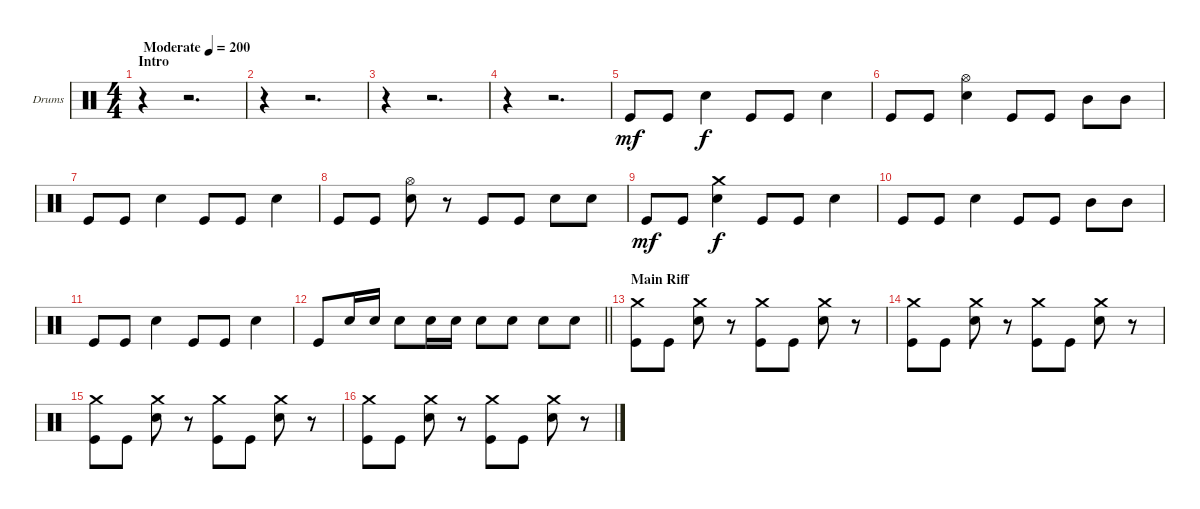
\bracketExtendMode groupsimilarinstruments
\firstSystemTrackNameOrientation horizontal
\otherSystemsTrackNameOrientation horizontal
\track ("Drumkit" "Drums") {instrument percussion}
\staff {score}
\articulation defaults
\ts (4 4)
\beaming (8 2 2 2 2)
\section ("" "Intro")
\tempo (200 "Moderate")
\clef neutral
\ks c
r.4{dy mf} r.2{d} |
r.4 r.2{d} |
r.4 r.2{d} |
r.4 r.2{d} |
"Kick (hit)".8 "Kick (hit)".8 "Snare (hit) 2".4{dy f} "Kick (hit)".8 "Kick (hit)".8 "Snare (hit) 2".4 |
"Kick (hit)".8 "Kick (hit)".8 ("Hi-Hat (open)" "Snare (hit) 2").4 "Kick (hit)".8 "Kick (hit)".8 "Mid Tom (hit)".8 "Mid Tom (hit)".8 |
"Kick (hit)".8 "Kick (hit)".8 "Snare (hit) 2".4 "Kick (hit)".8 "Kick (hit)".8 "Snare (hit) 2".4 |
"Kick (hit)".8 "Kick (hit)".8 ("Hi-Hat (open)" "Snare (hit) 2").8 r.8 "Kick (hit)".8 "Kick (hit)".8 "Snare (hit) 2".8 "Snare (hit) 2".8 |
"Kick (hit)".8{dy mf} "Kick (hit)".8 ("Snare (hit) 2" "Crash medium (hit)").4{dy f} "Kick (hit)".8 "Kick (hit)".8 "Snare (hit) 2".4 |
"Kick (hit)".8 "Kick (hit)".8 "Snare (hit) 2".4 "Kick (hit)".8 "Kick (hit)".8 "Mid Tom (hit)".8 "Mid Tom (hit)".8 |
"Kick (hit)".8 "Kick (hit)".8 "Snare (hit) 2".4 "Kick (hit)".8 "Kick (hit)".8 "Snare (hit) 2".4 |
\barLineRight lightlight "Kick (hit)".8 "Snare (hit) 2".16 "Snare (hit) 2".16 "Snare (hit) 2".8 "Snare (hit) 2".16 "Snare (hit) 2".16 "Snare (hit) 2".8 "Snare (hit) 2".8 "Snare (hit) 2".8 "Snare (hit) 2".8
|
\section ("" "Main Riff")
("Crash medium (hit)" "Kick (hit)").8 "Kick (hit)".8 ("Crash medium (hit)" "Snare (hit) 2").8 r.8 ("Crash medium (hit)" "Kick (hit)").8 "Kick (hit)".8 ("Crash medium (hit)" "Snare (hit) 2").8 r.8 |
("Crash medium (hit)" "Kick (hit)").8 "Kick (hit)".8 ("Crash medium (hit)" "Snare (hit) 2").8 r.8 ("Crash medium (hit)" "Kick (hit)").8 "Kick (hit)".8 ("Crash medium (hit)" "Snare (hit) 2").8 r.8 |
("Crash medium (hit)" "Kick (hit)").8 "Kick (hit)".8 ("Crash medium (hit)" "Snare (hit) 2").8 r.8 ("Crash medium (hit)" "Kick (hit)").8 "Kick (hit)".8 ("Crash medium (hit)" "Snare (hit) 2").8 r.8 |
("Crash medium (hit)" "Kick (hit)").8 "Kick (hit)".8 ("Crash medium (hit)" "Snare (hit) 2").8 r.8 ("Crash medium (hit)" "Kick (hit)").8 "Kick (hit)".8 ("Crash medium (hit)" "Snare (hit) 2").8 r.8
